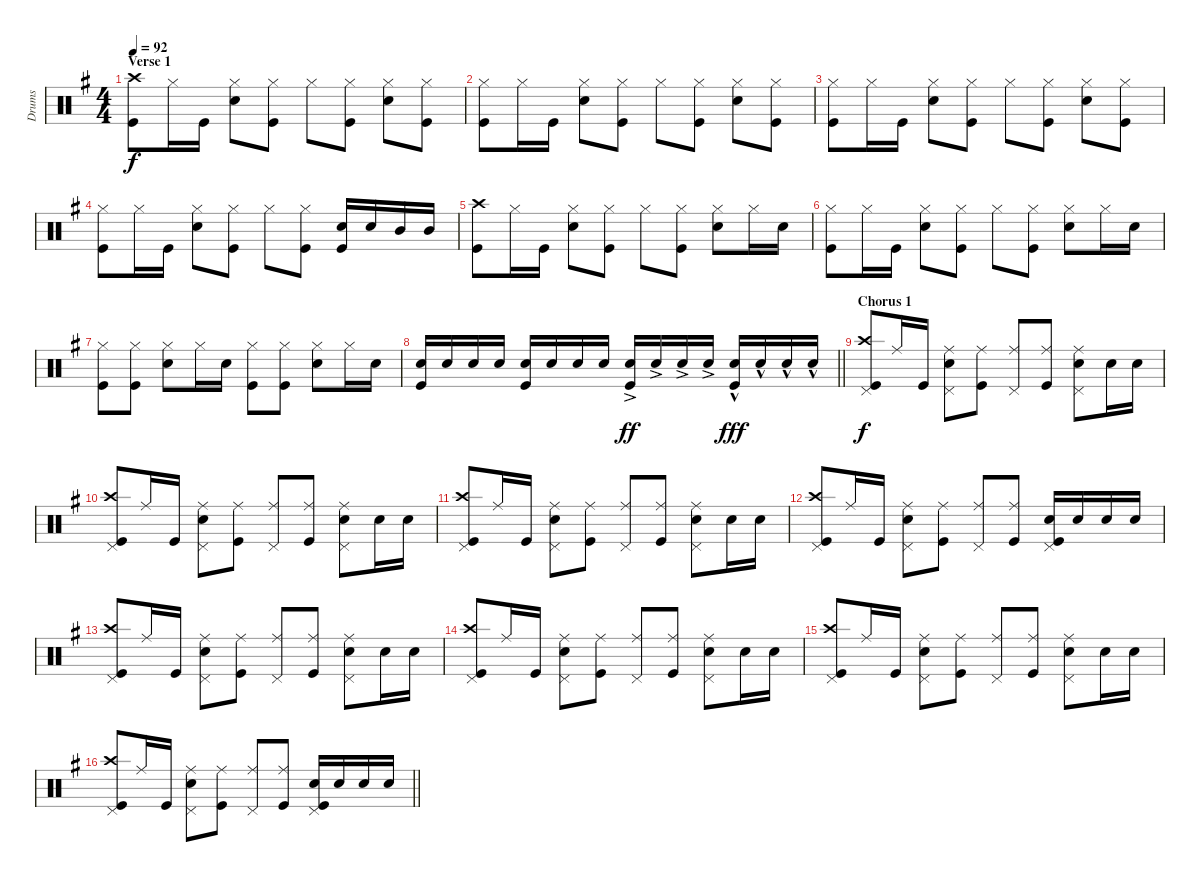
\track ("Drums" "Drums") {instrument percussion}
\staff {score}
\articulation defaults
\ts (4 4)
\section ("" "Verse 1")
\tempo 92
\clef neutral
\ks eminor
("Kick (hit)" "Crash high (hit)").8{dy f} "Hi-Hat (closed)".16 "Kick (hit)".16 ("Snare (hit) 2" "Hi-Hat (closed)").8 ("Kick (hit)" "Hi-Hat (closed)").8 "Hi-Hat (closed)".8 ("Kick (hit)" "Hi-Hat (closed)").8 ("Snare (hit) 2" "Hi-Hat (closed)").8 ("Kick (hit)" "Hi-Hat (closed)").8 |
("Kick (hit)" "Hi-Hat (closed)").8 "Hi-Hat (closed)".16 "Kick (hit)".16 ("Snare (hit) 2" "Hi-Hat (closed)").8 ("Kick (hit)" "Hi-Hat (closed)").8 "Hi-Hat (closed)".8 ("Kick (hit)" "Hi-Hat (closed)").8 ("Snare (hit) 2" "Hi-Hat (closed)").8 ("Kick (hit)" "Hi-Hat (closed)").8 |
("Kick (hit)" "Hi-Hat (closed)").8 "Hi-Hat (closed)".16 "Kick (hit)".16 ("Snare (hit) 2" "Hi-Hat (closed)").8 ("Kick (hit)" "Hi-Hat (closed)").8 "Hi-Hat (closed)".8 ("Kick (hit)" "Hi-Hat (closed)").8 ("Snare (hit) 2" "Hi-Hat (closed)").8 ("Kick (hit)" "Hi-Hat (closed)").8 |
("Kick (hit)" "Hi-Hat (closed)").8 "Hi-Hat (closed)".16 "Kick (hit)".16 ("Snare (hit) 2" "Hi-Hat (closed)").8 ("Kick (hit)" "Hi-Hat (closed)").8 "Hi-Hat (closed)".8 ("Kick (hit)" "Hi-Hat (closed)").8 ("Kick (hit)" "Snare (hit) 2").16 "Snare (hit) 2".16 "Mid Tom (hit)".16 "Mid Tom (hit)".16 |
("Kick (hit)" "Crash high (hit)").8 "Hi-Hat (closed)".16 "Kick (hit)".16 ("Snare (hit) 2" "Hi-Hat (closed)").8 ("Kick (hit)" "Hi-Hat (closed)").8 "Hi-Hat (closed)".8 ("Kick (hit)" "Hi-Hat (closed)").8 ("Snare (hit) 2" "Hi-Hat (closed)").8 "Hi-Hat (closed)".16 "Snare (hit) 2".16 |
("Kick (hit)" "Hi-Hat (closed)").8 "Hi-Hat (closed)".16 "Kick (hit)".16 ("Snare (hit) 2" "Hi-Hat (closed)").8 ("Kick (hit)" "Hi-Hat (closed)").8 "Hi-Hat (closed)".8 ("Kick (hit)" "Hi-Hat (closed)").8 ("Snare (hit) 2" "Hi-Hat (closed)").8 "Hi-Hat (closed)".16 "Snare (hit) 2".16 |
("Kick (hit)" "Hi-Hat (closed)").8 ("Kick (hit)" "Hi-Hat (closed)").8 ("Snare (hit) 2" "Hi-Hat (closed)").8 "Hi-Hat (closed)".16 "Snare (hit) 2".16 ("Kick (hit)" "Hi-Hat (closed)").8 ("Kick (hit)" "Hi-Hat (closed)").8 ("Snare (hit) 2" "Hi-Hat (closed)").8 "Hi-Hat (closed)".16 "Snare (hit) 2".16 |
\barLineRight lightlight
("Snare (hit) 2" "Kick (hit)").16 "Snare (hit) 2".16 "Snare (hit) 2".16 "Snare (hit) 2".16 ("Snare (hit) 2" "Kick (hit)").16 "Snare (hit) 2".16 "Snare (hit) 2".16 "Snare (hit) 2".16 ("Snare (hit) 2"{ac} "Kick (hit)"{ac}).16{dy ff} "Snare (hit) 2"{ac}.16 "Snare (hit) 2"{ac}.16 "Snare (hit) 2"{ac}.16 ("Snare (hit) 2"{hac} "Kick (hit)"{hac}).16{dy fff} "Snare (hit) 2"{hac}.16 "Snare (hit) 2"{hac}.16 "Snare (hit) 2"{hac}.16 |
\section ("" "Chorus 1")
("Pedal Hi-Hat (hit)" "Crash high (hit)" "Kick (hit)").8{dy f} "Ride (middle)".16 "Kick (hit)".16 ("Pedal Hi-Hat (hit)" "Ride (middle)" "Snare (hit) 2").8 ("Ride (middle)" "Kick (hit)").8 ("Pedal Hi-Hat (hit)" "Ride (middle)").8 ("Ride (middle)" "Kick (hit)").8 ("Pedal Hi-Hat (hit)" "Ride (middle)" "Snare (hit) 2").8 "Snare (hit) 2".16 "Snare (hit) 2".16 |
("Pedal Hi-Hat (hit)" "Crash high (hit)" "Kick (hit)").8 "Ride (middle)".16 "Kick (hit)".16 ("Pedal Hi-Hat (hit)" "Ride (middle)" "Snare (hit) 2").8 ("Ride (middle)" "Kick (hit)").8 ("Pedal Hi-Hat (hit)" "Ride (middle)").8 ("Ride (middle)" "Kick (hit)").8 ("Pedal Hi-Hat (hit)" "Ride (middle)" "Snare (hit) 2").8 "Snare (hit) 2".16 "Snare (hit) 2".16 |
("Pedal Hi-Hat (hit)" "Crash high (hit)" "Kick (hit)").8 "Ride (middle)".16 "Kick (hit)".16 ("Pedal Hi-Hat (hit)" "Ride (middle)" "Snare (hit) 2").8 ("Ride (middle)" "Kick (hit)").8 ("Pedal Hi-Hat (hit)" "Ride (middle)").8 ("Ride (middle)" "Kick (hit)").8 ("Pedal Hi-Hat (hit)" "Ride (middle)" "Snare (hit) 2").8 "Snare (hit) 2".16 "Snare (hit) 2".16 |
("Pedal Hi-Hat (hit)" "Crash high (hit)" "Kick (hit)").8 "Ride (middle)".16 "Kick (hit)".16 ("Pedal Hi-Hat (hit)" "Ride (middle)" "Snare (hit) 2").8 ("Ride (middle)" "Kick (hit)").8 ("Pedal Hi-Hat (hit)" "Ride (middle)").8 ("Ride (middle)" "Kick (hit)").8 ("Pedal Hi-Hat (hit)" "Snare (hit) 2" "Kick (hit)").16 "Snare (hit) 2".16 "Snare (hit) 2".16 "Snare (hit) 2".16 |
("Pedal Hi-Hat (hit)" "Crash high (hit)" "Kick (hit)").8 "Ride (middle)".16 "Kick (hit)".16 ("Pedal Hi-Hat (hit)" "Ride (middle)" "Snare (hit) 2").8 ("Ride (middle)" "Kick (hit)").8 ("Pedal Hi-Hat (hit)" "Ride (middle)").8 ("Ride (middle)" "Kick (hit)").8 ("Pedal Hi-Hat (hit)" "Ride (middle)" "Snare (hit) 2").8 "Snare (hit) 2".16 "Snare (hit) 2".16 |
("Pedal Hi-Hat (hit)" "Crash high (hit)" "Kick (hit)").8 "Ride (middle)".16 "Kick (hit)".16 ("Pedal Hi-Hat (hit)" "Ride (middle)" "Snare (hit) 2").8 ("Ride (middle)" "Kick (hit)").8 ("Pedal Hi-Hat (hit)" "Ride (middle)").8 ("Ride (middle)" "Kick (hit)").8 ("Pedal Hi-Hat (hit)" "Ride (middle)" "Snare (hit) 2").8 "Snare (hit) 2".16 "Snare (hit) 2".16 |
("Pedal Hi-Hat (hit)" "Crash high (hit)" "Kick (hit)").8 "Ride (middle)".16 "Kick (hit)".16 ("Pedal Hi-Hat (hit)" "Ride (middle)" "Snare (hit) 2").8 ("Ride (middle)" "Kick (hit)").8 ("Pedal Hi-Hat (hit)" "Ride (middle)").8 ("Ride (middle)" "Kick (hit)").8 ("Pedal Hi-Hat (hit)" "Ride (middle)" "Snare (hit) 2").8 "Snare (hit) 2".16 "Snare (hit) 2".16 |
\barLineRight lightlight
("Pedal Hi-Hat (hit)" "Crash high (hit)" "Kick (hit)").8 "Ride (middle)".16 "Kick (hit)".16 ("Pedal Hi-Hat (hit)" "Ride (middle)" "Snare (hit) 2").8 ("Ride (middle)" "Kick (hit)").8 ("Pedal Hi-Hat (hit)" "Ride (middle)").8 ("Ride (middle)" "Kick (hit)").8 ("Pedal Hi-Hat (hit)" "Snare (hit) 2" "Kick (hit)").16 "Snare (hit) 2".16 "Snare (hit) 2".16 "Snare (hit) 2".16
